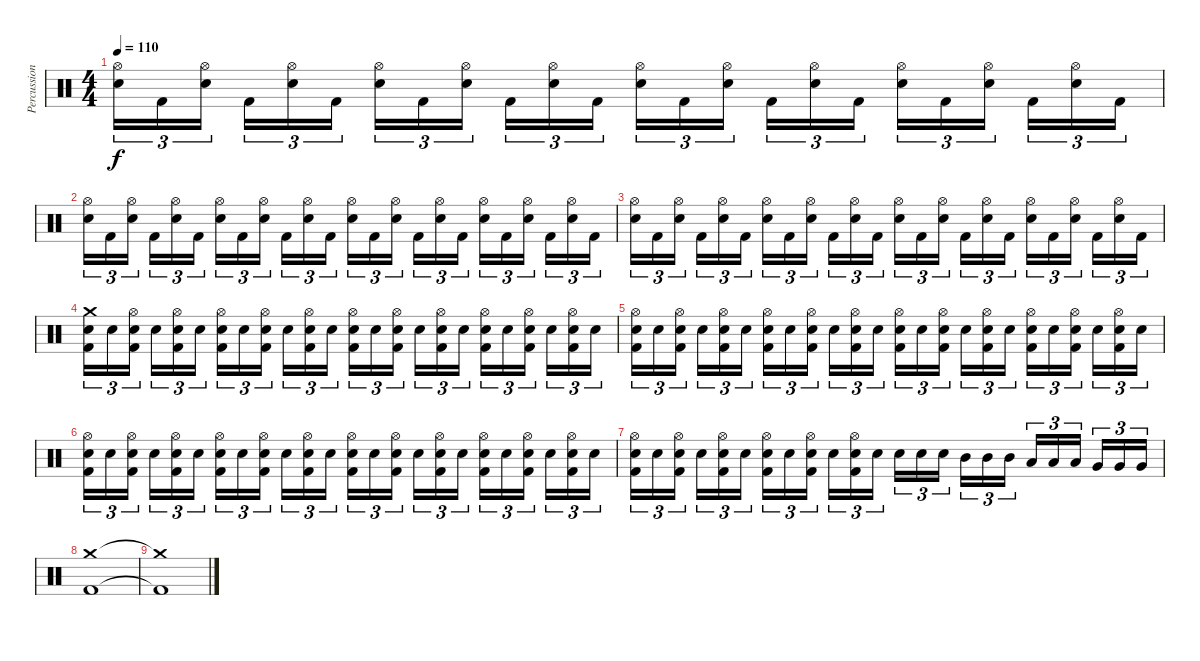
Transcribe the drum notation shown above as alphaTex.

\track ("Percussion" "Percussion") {instrument percussion}
\staff {score}
\articulation defaults
\ts (4 4)
\tempo 110
\clef neutral
\ks c
("Hi-Hat (open)" "Snare (hit) 2").16{tu (3 2) dy f} "Kick (hit) 2".16{tu (3 2)} ("Hi-Hat (open)" "Snare (hit) 2").16{tu (3 2)} "Kick (hit) 2".16{tu (3 2)} ("Hi-Hat (open)" "Snare (hit) 2").16{tu (3 2)} "Kick (hit) 2".16{tu (3 2)} ("Hi-Hat (open)" "Snare (hit) 2").16{tu (3 2)} "Kick (hit) 2".16{tu (3 2)} ("Hi-Hat (open)" "Snare (hit) 2").16{tu (3 2)} "Kick (hit) 2".16{tu (3 2)} ("Hi-Hat (open)" "Snare (hit) 2").16{tu (3 2)} "Kick (hit) 2".16{tu (3 2)} ("Hi-Hat (open)" "Snare (hit) 2").16{tu (3 2)} "Kick (hit) 2".16{tu (3 2)} ("Hi-Hat (open)" "Snare (hit) 2").16{tu (3 2)} "Kick (hit) 2".16{tu (3 2)} ("Hi-Hat (open)" "Snare (hit) 2").16{tu (3 2)} "Kick (hit) 2".16{tu (3 2)} ("Hi-Hat (open)" "Snare (hit) 2").16{tu (3 2)} "Kick (hit) 2".16{tu (3 2)} ("Hi-Hat (open)" "Snare (hit) 2").16{tu (3 2)} "Kick (hit) 2".16{tu (3 2)} ("Hi-Hat (open)" "Snare (hit) 2").16{tu (3 2)} "Kick (hit) 2".16{tu (3 2)} |
("Hi-Hat (open)" "Snare (hit) 2").16{tu (3 2)} "Kick (hit) 2".16{tu (3 2)} ("Hi-Hat (open)" "Snare (hit) 2").16{tu (3 2)} "Kick (hit) 2".16{tu (3 2)} ("Hi-Hat (open)" "Snare (hit) 2").16{tu (3 2)} "Kick (hit) 2".16{tu (3 2)} ("Hi-Hat (open)" "Snare (hit) 2").16{tu (3 2)} "Kick (hit) 2".16{tu (3 2)} ("Hi-Hat (open)" "Snare (hit) 2").16{tu (3 2)} "Kick (hit) 2".16{tu (3 2)} ("Hi-Hat (open)" "Snare (hit) 2").16{tu (3 2)} "Kick (hit) 2".16{tu (3 2)} ("Hi-Hat (open)" "Snare (hit) 2").16{tu (3 2)} "Kick (hit) 2".16{tu (3 2)} ("Hi-Hat (open)" "Snare (hit) 2").16{tu (3 2)} "Kick (hit) 2".16{tu (3 2)} ("Hi-Hat (open)" "Snare (hit) 2").16{tu (3 2)} "Kick (hit) 2".16{tu (3 2)} ("Hi-Hat (open)" "Snare (hit) 2").16{tu (3 2)} "Kick (hit) 2".16{tu (3 2)} ("Hi-Hat (open)" "Snare (hit) 2").16{tu (3 2)} "Kick (hit) 2".16{tu (3 2)} ("Hi-Hat (open)" "Snare (hit) 2").16{tu (3 2)} "Kick (hit) 2".16{tu (3 2)} |
("Hi-Hat (open)" "Snare (hit) 2").16{tu (3 2)} "Kick (hit) 2".16{tu (3 2)} ("Hi-Hat (open)" "Snare (hit) 2").16{tu (3 2)} "Kick (hit) 2".16{tu (3 2)} ("Hi-Hat (open)" "Snare (hit) 2").16{tu (3 2)} "Kick (hit) 2".16{tu (3 2)} ("Hi-Hat (open)" "Snare (hit) 2").16{tu (3 2)} "Kick (hit) 2".16{tu (3 2)} ("Hi-Hat (open)" "Snare (hit) 2").16{tu (3 2)} "Kick (hit) 2".16{tu (3 2)} ("Hi-Hat (open)" "Snare (hit) 2").16{tu (3 2)} "Kick (hit) 2".16{tu (3 2)} ("Hi-Hat (open)" "Snare (hit) 2").16{tu (3 2)} "Kick (hit) 2".16{tu (3 2)} ("Hi-Hat (open)" "Snare (hit) 2").16{tu (3 2)} "Kick (hit) 2".16{tu (3 2)} ("Hi-Hat (open)" "Snare (hit) 2").16{tu (3 2)} "Kick (hit) 2".16{tu (3 2)} ("Hi-Hat (open)" "Snare (hit) 2").16{tu (3 2)} "Kick (hit) 2".16{tu (3 2)} ("Hi-Hat (open)" "Snare (hit) 2").16{tu (3 2)} "Kick (hit) 2".16{tu (3 2)} ("Hi-Hat (open)" "Snare (hit) 2").16{tu (3 2)} "Kick (hit) 2".16{tu (3 2)} |
("Crash medium (hit)" "Snare (hit) 2" "Kick (hit) 2").16{tu (3 2)} "Snare (hit) 2".16{tu (3 2)} ("Hi-Hat (open)" "Snare (hit) 2" "Kick (hit) 2").16{tu (3 2)} "Snare (hit) 2".16{tu (3 2)} ("Hi-Hat (open)" "Snare (hit) 2" "Kick (hit) 2").16{tu (3 2)} "Snare (hit) 2".16{tu (3 2)} ("Hi-Hat (open)" "Snare (hit) 2" "Kick (hit) 2").16{tu (3 2)} "Snare (hit) 2".16{tu (3 2)} ("Hi-Hat (open)" "Snare (hit) 2" "Kick (hit) 2").16{tu (3 2)} "Snare (hit) 2".16{tu (3 2)} ("Hi-Hat (open)" "Snare (hit) 2" "Kick (hit) 2").16{tu (3 2)} "Snare (hit) 2".16{tu (3 2)} ("Hi-Hat (open)" "Snare (hit) 2" "Kick (hit) 2").16{tu (3 2)} "Snare (hit) 2".16{tu (3 2)} ("Hi-Hat (open)" "Snare (hit) 2" "Kick (hit) 2").16{tu (3 2)} "Snare (hit) 2".16{tu (3 2)} ("Hi-Hat (open)" "Snare (hit) 2" "Kick (hit) 2").16{tu (3 2)} "Snare (hit) 2".16{tu (3 2)} ("Hi-Hat (open)" "Snare (hit) 2" "Kick (hit) 2").16{tu (3 2)} "Snare (hit) 2".16{tu (3 2)} ("Hi-Hat (open)" "Snare (hit) 2" "Kick (hit) 2").16{tu (3 2)} "Snare (hit) 2".16{tu (3 2)} ("Hi-Hat (open)" "Snare (hit) 2" "Kick (hit) 2").16{tu (3 2)} "Snare (hit) 2".16{tu (3 2)} |
("Hi-Hat (open)" "Snare (hit) 2" "Kick (hit) 2").16{tu (3 2)} "Snare (hit) 2".16{tu (3 2)} ("Hi-Hat (open)" "Snare (hit) 2" "Kick (hit) 2").16{tu (3 2)} "Snare (hit) 2".16{tu (3 2)} ("Hi-Hat (open)" "Snare (hit) 2" "Kick (hit) 2").16{tu (3 2)} "Snare (hit) 2".16{tu (3 2)} ("Hi-Hat (open)" "Snare (hit) 2" "Kick (hit) 2").16{tu (3 2)} "Snare (hit) 2".16{tu (3 2)} ("Hi-Hat (open)" "Snare (hit) 2" "Kick (hit) 2").16{tu (3 2)} "Snare (hit) 2".16{tu (3 2)} ("Hi-Hat (open)" "Snare (hit) 2" "Kick (hit) 2").16{tu (3 2)} "Snare (hit) 2".16{tu (3 2)} ("Hi-Hat (open)" "Snare (hit) 2" "Kick (hit) 2").16{tu (3 2)} "Snare (hit) 2".16{tu (3 2)} ("Hi-Hat (open)" "Snare (hit) 2" "Kick (hit) 2").16{tu (3 2)} "Snare (hit) 2".16{tu (3 2)} ("Hi-Hat (open)" "Snare (hit) 2" "Kick (hit) 2").16{tu (3 2)} "Snare (hit) 2".16{tu (3 2)} ("Hi-Hat (open)" "Snare (hit) 2" "Kick (hit) 2").16{tu (3 2)} "Snare (hit) 2".16{tu (3 2)} ("Hi-Hat (open)" "Snare (hit) 2" "Kick (hit) 2").16{tu (3 2)} "Snare (hit) 2".16{tu (3 2)} ("Hi-Hat (open)" "Snare (hit) 2" "Kick (hit) 2").16{tu (3 2)} "Snare (hit) 2".16{tu (3 2)} |
("Hi-Hat (open)" "Snare (hit) 2" "Kick (hit) 2").16{tu (3 2)} "Snare (hit) 2".16{tu (3 2)} ("Hi-Hat (open)" "Snare (hit) 2" "Kick (hit) 2").16{tu (3 2)} "Snare (hit) 2".16{tu (3 2)} ("Hi-Hat (open)" "Snare (hit) 2" "Kick (hit) 2").16{tu (3 2)} "Snare (hit) 2".16{tu (3 2)} ("Hi-Hat (open)" "Snare (hit) 2" "Kick (hit) 2").16{tu (3 2)} "Snare (hit) 2".16{tu (3 2)} ("Hi-Hat (open)" "Snare (hit) 2" "Kick (hit) 2").16{tu (3 2)} "Snare (hit) 2".16{tu (3 2)} ("Hi-Hat (open)" "Snare (hit) 2" "Kick (hit) 2").16{tu (3 2)} "Snare (hit) 2".16{tu (3 2)} ("Hi-Hat (open)" "Snare (hit) 2" "Kick (hit) 2").16{tu (3 2)} "Snare (hit) 2".16{tu (3 2)} ("Hi-Hat (open)" "Snare (hit) 2" "Kick (hit) 2").16{tu (3 2)} "Snare (hit) 2".16{tu (3 2)} ("Hi-Hat (open)" "Snare (hit) 2" "Kick (hit) 2").16{tu (3 2)} "Snare (hit) 2".16{tu (3 2)} ("Hi-Hat (open)" "Snare (hit) 2" "Kick (hit) 2").16{tu (3 2)} "Snare (hit) 2".16{tu (3 2)} ("Hi-Hat (open)" "Snare (hit) 2" "Kick (hit) 2").16{tu (3 2)} "Snare (hit) 2".16{tu (3 2)} ("Hi-Hat (open)" "Snare (hit) 2" "Kick (hit) 2").16{tu (3 2)} "Snare (hit) 2".16{tu (3 2)} |
("Hi-Hat (open)" "Snare (hit) 2" "Kick (hit) 2").16{tu (3 2)} "Snare (hit) 2".16{tu (3 2)} ("Hi-Hat (open)" "Snare (hit) 2" "Kick (hit) 2").16{tu (3 2)} "Snare (hit) 2".16{tu (3 2)} ("Hi-Hat (open)" "Snare (hit) 2" "Kick (hit) 2").16{tu (3 2)} "Snare (hit) 2".16{tu (3 2)} ("Hi-Hat (open)" "Snare (hit) 2" "Kick (hit) 2").16{tu (3 2)} "Snare (hit) 2".16{tu (3 2)} ("Hi-Hat (open)" "Snare (hit) 2" "Kick (hit) 2").16{tu (3 2)} "Snare (hit) 2".16{tu (3 2)} ("Hi-Hat (open)" "Snare (hit) 2" "Kick (hit) 2").16{tu (3 2)} "Snare (hit) 2".16{tu (3 2)} "Snare (hit) 2".16{tu (3 2)} "Snare (hit) 2".16{tu (3 2)} "Snare (hit) 2".16{tu (3 2)} "Mid Tom (hit)".16{tu (3 2)} "Mid Tom (hit)".16{tu (3 2)} "Mid Tom (hit)".16{tu (3 2)} "Low Tom (hit)".16{tu (3 2)} "Low Tom (hit)".16{tu (3 2)} "Low Tom (hit)".16{tu (3 2)} "Very Low Tom (hit)".16{tu (3 2)} "Very Low Tom (hit)".16{tu (3 2)} "Very Low Tom (hit)".16{tu (3 2)} |
("Crash medium (hit)" "Kick (hit) 2").1 |
("Crash medium (hit)"{t} "Kick (hit) 2"{t}).1
